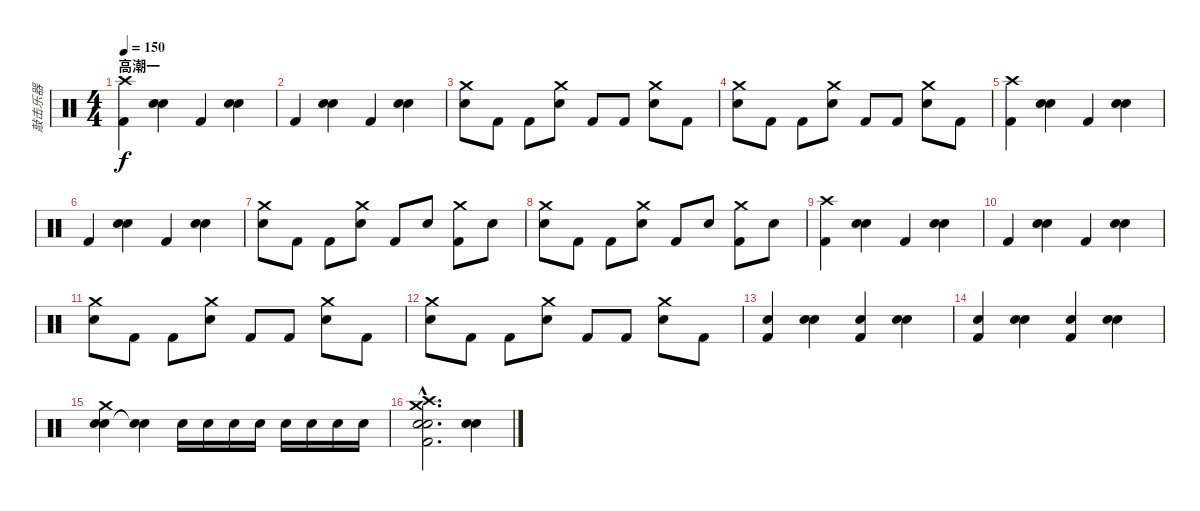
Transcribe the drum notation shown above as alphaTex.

\track ("敲击乐器" "敲击乐器") {instrument percussion}
\staff {score}
\articulation defaults
\ts (4 4)
\section ("" "高潮一")
\tempo 150
\clef neutral
\ks c
("Kick (hit) 2" "Crash high (hit)").4{dy f} ("Snare (hit) 2" "Electric Snare (hit)").4 "Kick (hit) 2".4 ("Snare (hit) 2" "Electric Snare (hit)").4 |
"Kick (hit) 2".4 ("Snare (hit) 2" "Electric Snare (hit)").4 "Kick (hit) 2".4 ("Snare (hit) 2" "Electric Snare (hit)").4 |
("Snare (hit) 2" "Crash medium (hit)").8 "Kick (hit) 2".8 "Kick (hit) 2".8 ("Snare (hit) 2" "Crash medium (hit)").8 "Kick (hit) 2".8 "Kick (hit) 2".8 ("Snare (hit) 2" "Crash medium (hit)").8 "Kick (hit) 2".8 |
("Snare (hit) 2" "Crash medium (hit)").8 "Kick (hit) 2".8 "Kick (hit) 2".8 ("Snare (hit) 2" "Crash medium (hit)").8 "Kick (hit) 2".8 "Kick (hit) 2".8 ("Snare (hit) 2" "Crash medium (hit)").8 "Kick (hit) 2".8 |
("Kick (hit) 2" "Crash high (hit)").4 ("Snare (hit) 2" "Electric Snare (hit)").4 "Kick (hit) 2".4 ("Snare (hit) 2" "Electric Snare (hit)").4 |
"Kick (hit) 2".4 ("Snare (hit) 2" "Electric Snare (hit)").4 "Kick (hit) 2".4 ("Snare (hit) 2" "Electric Snare (hit)").4 |
("Snare (hit) 2" "Crash medium (hit)").8 "Kick (hit) 2".8 "Kick (hit) 2".8 ("Snare (hit) 2" "Crash medium (hit)").8 "Kick (hit) 2".8 "Snare (hit) 2".8 ("Kick (hit) 2" "Crash medium (hit)").8 "Snare (hit) 2".8 |
("Snare (hit) 2" "Crash medium (hit)").8 "Kick (hit) 2".8 "Kick (hit) 2".8 ("Snare (hit) 2" "Crash medium (hit)").8 "Kick (hit) 2".8 "Snare (hit) 2".8 ("Kick (hit) 2" "Crash medium (hit)").8 "Snare (hit) 2".8 |
("Kick (hit) 2" "Crash high (hit)").4 ("Snare (hit) 2" "Electric Snare (hit)").4 "Kick (hit) 2".4 ("Snare (hit) 2" "Electric Snare (hit)").4 |
"Kick (hit) 2".4 ("Snare (hit) 2" "Electric Snare (hit)").4 "Kick (hit) 2".4 ("Snare (hit) 2" "Electric Snare (hit)").4 |
("Snare (hit) 2" "Crash medium (hit)").8 "Kick (hit) 2".8 "Kick (hit) 2".8 ("Snare (hit) 2" "Crash medium (hit)").8 "Kick (hit) 2".8 "Kick (hit) 2".8 ("Snare (hit) 2" "Crash medium (hit)").8 "Kick (hit) 2".8 |
("Snare (hit) 2" "Crash medium (hit)").8 "Kick (hit) 2".8 "Kick (hit) 2".8 ("Snare (hit) 2" "Crash medium (hit)").8 "Kick (hit) 2".8 "Kick (hit) 2".8 ("Snare (hit) 2" "Crash medium (hit)").8 "Kick (hit) 2".8 |
("Kick (hit) 2" "Electric Snare (hit)").4 ("Snare (hit) 2" "Electric Snare (hit)").4 ("Kick (hit) 2" "Electric Snare (hit)").4 ("Snare (hit) 2" "Electric Snare (hit)").4 |
("Kick (hit) 2" "Electric Snare (hit)").4 ("Snare (hit) 2" "Electric Snare (hit)").4 ("Kick (hit) 2" "Electric Snare (hit)").4 ("Snare (hit) 2" "Electric Snare (hit)").4 |
("Snare (hit) 2" "Electric Snare (hit)" "Crash medium (hit)").4 ("Snare (hit) 2"{t} "Snare (hit)"{t}).4 "Electric Snare (hit)".16 "Electric Snare (hit)".16 "Electric Snare (hit)".16 "Electric Snare (hit)".16 "Electric Snare (hit)".16 "Electric Snare (hit)".16 "Electric Snare (hit)".16 "Electric Snare (hit)".16 |
("Snare (hit) 2"{hac} "Crash high (hit)"{hac} "Crash medium (hit)"{hac} "Kick (hit) 2"{hac} "Electric Snare (hit)"{hac}).2{d} ("Snare (hit) 2" "Electric Snare (hit)").4
